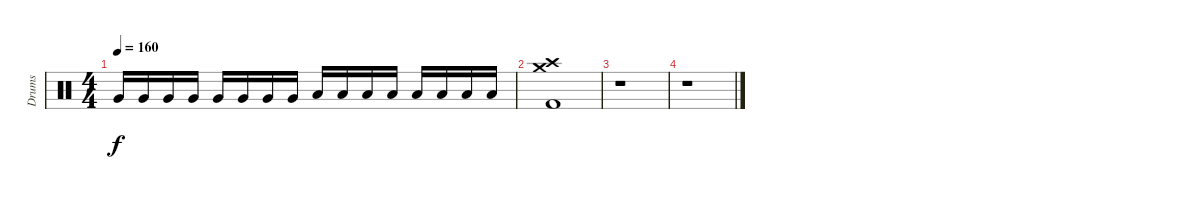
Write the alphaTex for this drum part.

\track ("Drums" "Drums") {instrument percussion}
\staff {score}
\articulation defaults
\ts (4 4)
\tempo 160
\clef neutral
\ks c "Very Low Tom (hit)".16{dy f} "Very Low Tom (hit)".16 "Very Low Tom (hit)".16 "Very Low Tom (hit)".16 "Very Low Tom (hit)".16 "Very Low Tom (hit)".16 "Very Low Tom (hit)".16 "Very Low Tom (hit)".16 "Low Floor Tom (hit)".16 "Low Floor Tom (hit)".16 "Low Floor Tom (hit)".16 "Low Floor Tom (hit)".16 "Low Floor Tom (hit)".16 "Low Floor Tom (hit)".16 "Low Floor Tom (hit)".16 "Low Floor Tom (hit)".16
|
("Crash high (hit)" "Crash medium (hit)" "Kick (hit) 2").1 |
r.1 |
r.1
